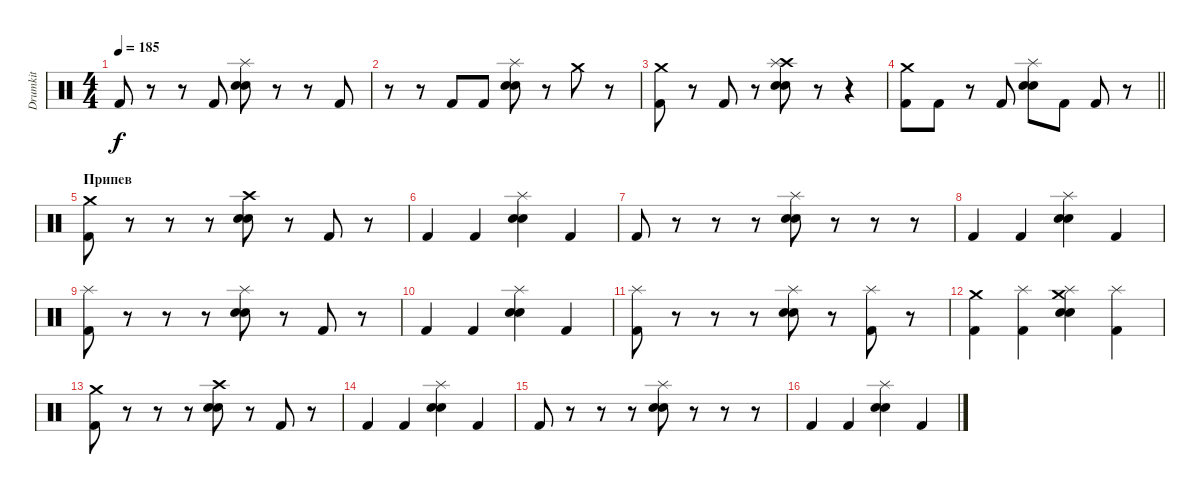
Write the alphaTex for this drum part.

\track ("Drumkit" "Drumkit") {instrument percussion}
\staff {score}
\articulation defaults
\ts (4 4)
\tempo 185
\clef neutral
\ks c "Kick (hit) 2".8{dy f}
r.8 r.8 "Kick (hit) 2".8 ("Splash (hit)" "Electric Snare (hit)" "Snare (hit) 2").8 r.8 r.8 "Kick (hit) 2".8 |
r.8 r.8 "Kick (hit) 2".8 "Kick (hit) 2".8 ("Splash (hit)" "Electric Snare (hit)" "Snare (hit) 2").8 r.8 "Crash medium (hit)".8 r.8 |
("Crash medium (hit)" "Kick (hit) 2").8 r.8 "Kick (hit) 2".8 r.8 ("Crash high (hit)" "Splash (hit)" "Electric Snare (hit)" "Snare (hit) 2").8 r.8 r.4 |
\barLineRight lightlight
("Crash medium (hit)" "Kick (hit) 2").8 "Kick (hit) 2".8 r.8 "Kick (hit) 2".8 ("Splash (hit)" "Electric Snare (hit)" "Snare (hit) 2").8 "Kick (hit) 2".8 "Kick (hit) 2".8 r.8 |
\section ("" "Припев")
("Crash medium (hit)" "Kick (hit) 2").8 r.8 r.8 r.8 ("Crash high (hit)" "Electric Snare (hit)" "Snare (hit) 2").8 r.8 "Kick (hit) 2".8 r.8 |
"Kick (hit) 2".4 "Kick (hit) 2".4 ("Splash (hit)" "Electric Snare (hit)" "Snare (hit) 2").4 "Kick (hit) 2".4 |
"Kick (hit) 2".8 r.8 r.8 r.8 ("Splash (hit)" "Electric Snare (hit)" "Snare (hit) 2").8 r.8 r.8 r.8 |
"Kick (hit) 2".4 "Kick (hit) 2".4 ("Splash (hit)" "Electric Snare (hit)" "Snare (hit) 2").4 "Kick (hit) 2".4 |
("Splash (hit)" "Kick (hit) 2").8 r.8 r.8 r.8 ("Splash (hit)" "Electric Snare (hit)" "Snare (hit) 2").8 r.8 "Kick (hit) 2".8 r.8 |
"Kick (hit) 2".4 "Kick (hit) 2".4 ("Splash (hit)" "Electric Snare (hit)" "Snare (hit) 2").4 "Kick (hit) 2".4 |
("Splash (hit)" "Kick (hit) 2").8 r.8 r.8 r.8 ("Splash (hit)" "Electric Snare (hit)" "Snare (hit) 2").8 r.8 ("Splash (hit)" "Kick (hit) 2").8 r.8 |
("Crash medium (hit)" "Kick (hit) 2").4 ("Splash (hit)" "Kick (hit) 2").4 ("Crash medium (hit)" "Splash (hit)" "Electric Snare (hit)" "Snare (hit) 2").4 ("Splash (hit)" "Kick (hit) 2").4 |
("Crash medium (hit)" "Kick (hit) 2").8 r.8 r.8 r.8 ("Crash high (hit)" "Electric Snare (hit)" "Snare (hit) 2").8 r.8 "Kick (hit) 2".8 r.8 |
"Kick (hit) 2".4 "Kick (hit) 2".4 ("Splash (hit)" "Electric Snare (hit)" "Snare (hit) 2").4 "Kick (hit) 2".4 |
"Kick (hit) 2".8 r.8 r.8 r.8 ("Splash (hit)" "Electric Snare (hit)" "Snare (hit) 2").8 r.8 r.8 r.8 |
"Kick (hit) 2".4 "Kick (hit) 2".4 ("Splash (hit)" "Electric Snare (hit)" "Snare (hit) 2").4 "Kick (hit) 2".4
